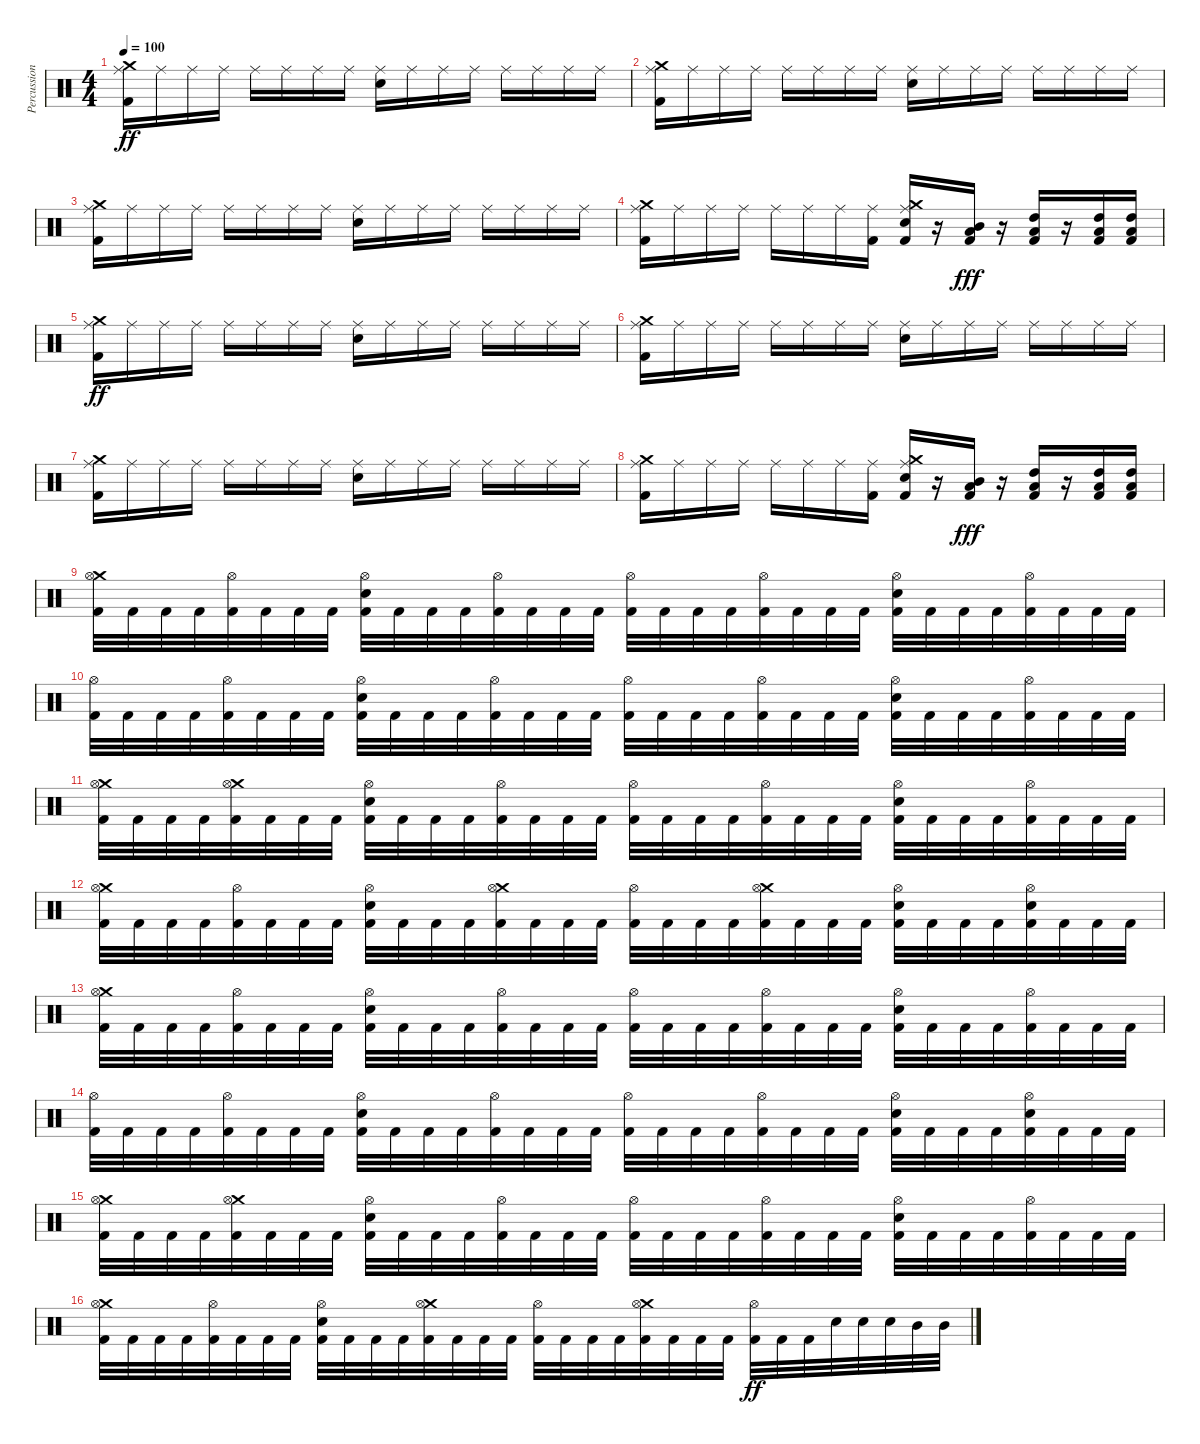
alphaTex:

\track ("Percussion" "Percussion") {instrument percussion}
\staff {score}
\articulation defaults
\ts (4 4)
\tempo 100
\clef neutral
\ks c
("Kick (hit) 2" "Crash medium (hit)" "Ride (middle)").16{dy ff} "Ride (middle)".16 "Ride (middle)".16 "Ride (middle)".16 "Ride (middle)".16 "Ride (middle)".16 "Ride (middle)".16 "Ride (middle)".16 ("Snare (hit) 2" "Ride (middle)").16 "Ride (middle)".16 "Ride (middle)".16 "Ride (middle)".16 "Ride (middle)".16 "Ride (middle)".16 "Ride (middle)".16 "Ride (middle)".16 |
("Kick (hit) 2" "Crash medium (hit)" "Ride (middle)").16 "Ride (middle)".16 "Ride (middle)".16 "Ride (middle)".16 "Ride (middle)".16 "Ride (middle)".16 "Ride (middle)".16 "Ride (middle)".16 ("Snare (hit) 2" "Ride (middle)").16 "Ride (middle)".16 "Ride (middle)".16 "Ride (middle)".16 "Ride (middle)".16 "Ride (middle)".16 "Ride (middle)".16 "Ride (middle)".16 |
("Kick (hit) 2" "Crash medium (hit)" "Ride (middle)").16 "Ride (middle)".16 "Ride (middle)".16 "Ride (middle)".16 "Ride (middle)".16 "Ride (middle)".16 "Ride (middle)".16 "Ride (middle)".16 ("Snare (hit) 2" "Ride (middle)").16 "Ride (middle)".16 "Ride (middle)".16 "Ride (middle)".16 "Ride (middle)".16 "Ride (middle)".16 "Ride (middle)".16 "Ride (middle)".16 |
("Kick (hit) 2" "Crash medium (hit)" "Ride (middle)").16 "Ride (middle)".16 "Ride (middle)".16 "Ride (middle)".16 "Ride (middle)".16 "Ride (middle)".16 "Ride (middle)".16 ("Kick (hit) 2" "Ride (middle)").16 ("Kick (hit) 2" "Crash medium (hit)" "Snare (hit) 2" "Ride (middle)").16 r.16 ("Kick (hit) 2" "Mid Tom (hit)" "Low Tom (hit)").16{dy fff} r.16 ("Kick (hit) 2" "High Tom (hit)" "Low Tom (hit)").16 r.16 ("Kick (hit) 2" "High Tom (hit)" "Low Tom (hit)").16 ("Kick (hit) 2" "High Tom (hit)" "Low Tom (hit)").16 |
("Kick (hit) 2" "Crash medium (hit)" "Ride (middle)").16{dy ff} "Ride (middle)".16 "Ride (middle)".16 "Ride (middle)".16 "Ride (middle)".16 "Ride (middle)".16 "Ride (middle)".16 "Ride (middle)".16 ("Snare (hit) 2" "Ride (middle)").16 "Ride (middle)".16 "Ride (middle)".16 "Ride (middle)".16 "Ride (middle)".16 "Ride (middle)".16 "Ride (middle)".16 "Ride (middle)".16 |
("Kick (hit) 2" "Crash medium (hit)" "Ride (middle)").16 "Ride (middle)".16 "Ride (middle)".16 "Ride (middle)".16 "Ride (middle)".16 "Ride (middle)".16 "Ride (middle)".16 "Ride (middle)".16 ("Snare (hit) 2" "Ride (middle)").16 "Ride (middle)".16 "Ride (middle)".16 "Ride (middle)".16 "Ride (middle)".16 "Ride (middle)".16 "Ride (middle)".16 "Ride (middle)".16 |
("Kick (hit) 2" "Crash medium (hit)" "Ride (middle)").16 "Ride (middle)".16 "Ride (middle)".16 "Ride (middle)".16 "Ride (middle)".16 "Ride (middle)".16 "Ride (middle)".16 "Ride (middle)".16 ("Snare (hit) 2" "Ride (middle)").16 "Ride (middle)".16 "Ride (middle)".16 "Ride (middle)".16 "Ride (middle)".16 "Ride (middle)".16 "Ride (middle)".16 "Ride (middle)".16 |
("Kick (hit) 2" "Crash medium (hit)" "Ride (middle)").16 "Ride (middle)".16 "Ride (middle)".16 "Ride (middle)".16 "Ride (middle)".16 "Ride (middle)".16 "Ride (middle)".16 ("Kick (hit) 2" "Ride (middle)").16 ("Kick (hit) 2" "Crash medium (hit)" "Snare (hit) 2" "Ride (middle)").16 r.16 ("Kick (hit) 2" "Mid Tom (hit)" "Low Tom (hit)").16{dy fff} r.16 ("Kick (hit) 2" "High Tom (hit)" "Low Tom (hit)").16 r.16 ("Kick (hit) 2" "High Tom (hit)" "Low Tom (hit)").16 ("Kick (hit) 2" "High Tom (hit)" "Low Tom (hit)").16 |
("Kick (hit) 2" "Crash medium (hit)" "Hi-Hat (open)").32 "Kick (hit) 2".32 "Kick (hit) 2".32 "Kick (hit) 2".32 ("Kick (hit) 2" "Hi-Hat (open)").32 "Kick (hit) 2".32 "Kick (hit) 2".32 "Kick (hit) 2".32 ("Kick (hit) 2" "Snare (hit) 2" "Hi-Hat (open)").32 "Kick (hit) 2".32 "Kick (hit) 2".32 "Kick (hit) 2".32 ("Kick (hit) 2" "Hi-Hat (open)").32 "Kick (hit) 2".32 "Kick (hit) 2".32 "Kick (hit) 2".32 ("Kick (hit) 2" "Hi-Hat (open)").32 "Kick (hit) 2".32 "Kick (hit) 2".32 "Kick (hit) 2".32 ("Kick (hit) 2" "Hi-Hat (open)").32 "Kick (hit) 2".32 "Kick (hit) 2".32 "Kick (hit) 2".32 ("Kick (hit) 2" "Snare (hit) 2" "Hi-Hat (open)").32 "Kick (hit) 2".32 "Kick (hit) 2".32 "Kick (hit) 2".32 ("Kick (hit) 2" "Hi-Hat (open)").32 "Kick (hit) 2".32 "Kick (hit) 2".32 "Kick (hit) 2".32 |
("Kick (hit) 2" "Hi-Hat (open)").32 "Kick (hit) 2".32 "Kick (hit) 2".32 "Kick (hit) 2".32 ("Kick (hit) 2" "Hi-Hat (open)").32 "Kick (hit) 2".32 "Kick (hit) 2".32 "Kick (hit) 2".32 ("Kick (hit) 2" "Snare (hit) 2" "Hi-Hat (open)").32 "Kick (hit) 2".32 "Kick (hit) 2".32 "Kick (hit) 2".32 ("Kick (hit) 2" "Hi-Hat (open)").32 "Kick (hit) 2".32 "Kick (hit) 2".32 "Kick (hit) 2".32 ("Kick (hit) 2" "Hi-Hat (open)").32 "Kick (hit) 2".32 "Kick (hit) 2".32 "Kick (hit) 2".32 ("Kick (hit) 2" "Hi-Hat (open)").32 "Kick (hit) 2".32 "Kick (hit) 2".32 "Kick (hit) 2".32 ("Kick (hit) 2" "Snare (hit) 2" "Hi-Hat (open)").32 "Kick (hit) 2".32 "Kick (hit) 2".32 "Kick (hit) 2".32 ("Kick (hit) 2" "Hi-Hat (open)").32 "Kick (hit) 2".32 "Kick (hit) 2".32 "Kick (hit) 2".32 |
("Kick (hit) 2" "Crash medium (hit)" "Hi-Hat (open)").32 "Kick (hit) 2".32 "Kick (hit) 2".32 "Kick (hit) 2".32 ("Kick (hit) 2" "Crash medium (hit)" "Hi-Hat (open)").32 "Kick (hit) 2".32 "Kick (hit) 2".32 "Kick (hit) 2".32 ("Kick (hit) 2" "Snare (hit) 2" "Hi-Hat (open)").32 "Kick (hit) 2".32 "Kick (hit) 2".32 "Kick (hit) 2".32 ("Kick (hit) 2" "Hi-Hat (open)").32 "Kick (hit) 2".32 "Kick (hit) 2".32 "Kick (hit) 2".32 ("Kick (hit) 2" "Hi-Hat (open)").32 "Kick (hit) 2".32 "Kick (hit) 2".32 "Kick (hit) 2".32 ("Kick (hit) 2" "Hi-Hat (open)").32 "Kick (hit) 2".32 "Kick (hit) 2".32 "Kick (hit) 2".32 ("Kick (hit) 2" "Snare (hit) 2" "Hi-Hat (open)").32 "Kick (hit) 2".32 "Kick (hit) 2".32 "Kick (hit) 2".32 ("Kick (hit) 2" "Hi-Hat (open)").32 "Kick (hit) 2".32 "Kick (hit) 2".32 "Kick (hit) 2".32 |
("Kick (hit) 2" "Crash medium (hit)" "Hi-Hat (open)").32 "Kick (hit) 2".32 "Kick (hit) 2".32 "Kick (hit) 2".32 ("Kick (hit) 2" "Hi-Hat (open)").32 "Kick (hit) 2".32 "Kick (hit) 2".32 "Kick (hit) 2".32 ("Kick (hit) 2" "Snare (hit) 2" "Hi-Hat (open)").32 "Kick (hit) 2".32 "Kick (hit) 2".32 "Kick (hit) 2".32 ("Kick (hit) 2" "Crash medium (hit)" "Hi-Hat (open)").32 "Kick (hit) 2".32 "Kick (hit) 2".32 "Kick (hit) 2".32 ("Kick (hit) 2" "Hi-Hat (open)").32 "Kick (hit) 2".32 "Kick (hit) 2".32 "Kick (hit) 2".32 ("Kick (hit) 2" "Crash medium (hit)" "Hi-Hat (open)").32 "Kick (hit) 2".32 "Kick (hit) 2".32 "Kick (hit) 2".32 ("Kick (hit) 2" "Snare (hit) 2" "Hi-Hat (open)").32 "Kick (hit) 2".32 "Kick (hit) 2".32 "Kick (hit) 2".32 ("Kick (hit) 2" "Snare (hit) 2" "Hi-Hat (open)").32 "Kick (hit) 2".32 "Kick (hit) 2".32 "Kick (hit) 2".32 |
("Kick (hit) 2" "Crash medium (hit)" "Hi-Hat (open)").32 "Kick (hit) 2".32 "Kick (hit) 2".32 "Kick (hit) 2".32 ("Kick (hit) 2" "Hi-Hat (open)").32 "Kick (hit) 2".32 "Kick (hit) 2".32 "Kick (hit) 2".32 ("Kick (hit) 2" "Snare (hit) 2" "Hi-Hat (open)").32 "Kick (hit) 2".32 "Kick (hit) 2".32 "Kick (hit) 2".32 ("Kick (hit) 2" "Hi-Hat (open)").32 "Kick (hit) 2".32 "Kick (hit) 2".32 "Kick (hit) 2".32 ("Kick (hit) 2" "Hi-Hat (open)").32 "Kick (hit) 2".32 "Kick (hit) 2".32 "Kick (hit) 2".32 ("Kick (hit) 2" "Hi-Hat (open)").32 "Kick (hit) 2".32 "Kick (hit) 2".32 "Kick (hit) 2".32 ("Kick (hit) 2" "Snare (hit) 2" "Hi-Hat (open)").32 "Kick (hit) 2".32 "Kick (hit) 2".32 "Kick (hit) 2".32 ("Kick (hit) 2" "Hi-Hat (open)").32 "Kick (hit) 2".32 "Kick (hit) 2".32 "Kick (hit) 2".32 |
("Kick (hit) 2" "Hi-Hat (open)").32 "Kick (hit) 2".32 "Kick (hit) 2".32 "Kick (hit) 2".32 ("Kick (hit) 2" "Hi-Hat (open)").32 "Kick (hit) 2".32 "Kick (hit) 2".32 "Kick (hit) 2".32 ("Kick (hit) 2" "Snare (hit) 2" "Hi-Hat (open)").32 "Kick (hit) 2".32 "Kick (hit) 2".32 "Kick (hit) 2".32 ("Kick (hit) 2" "Hi-Hat (open)").32 "Kick (hit) 2".32 "Kick (hit) 2".32 "Kick (hit) 2".32 ("Kick (hit) 2" "Hi-Hat (open)").32 "Kick (hit) 2".32 "Kick (hit) 2".32 "Kick (hit) 2".32 ("Kick (hit) 2" "Hi-Hat (open)").32 "Kick (hit) 2".32 "Kick (hit) 2".32 "Kick (hit) 2".32 ("Kick (hit) 2" "Snare (hit) 2" "Hi-Hat (open)").32 "Kick (hit) 2".32 "Kick (hit) 2".32 "Kick (hit) 2".32 ("Kick (hit) 2" "Snare (hit) 2" "Hi-Hat (open)").32 "Kick (hit) 2".32 "Kick (hit) 2".32 "Kick (hit) 2".32 |
("Kick (hit) 2" "Crash medium (hit)" "Hi-Hat (open)").32 "Kick (hit) 2".32 "Kick (hit) 2".32 "Kick (hit) 2".32 ("Kick (hit) 2" "Crash medium (hit)" "Hi-Hat (open)").32 "Kick (hit) 2".32 "Kick (hit) 2".32 "Kick (hit) 2".32 ("Kick (hit) 2" "Snare (hit) 2" "Hi-Hat (open)").32 "Kick (hit) 2".32 "Kick (hit) 2".32 "Kick (hit) 2".32 ("Kick (hit) 2" "Hi-Hat (open)").32 "Kick (hit) 2".32 "Kick (hit) 2".32 "Kick (hit) 2".32 ("Kick (hit) 2" "Hi-Hat (open)").32 "Kick (hit) 2".32 "Kick (hit) 2".32 "Kick (hit) 2".32 ("Kick (hit) 2" "Hi-Hat (open)").32 "Kick (hit) 2".32 "Kick (hit) 2".32 "Kick (hit) 2".32 ("Kick (hit) 2" "Snare (hit) 2" "Hi-Hat (open)").32 "Kick (hit) 2".32 "Kick (hit) 2".32 "Kick (hit) 2".32 ("Kick (hit) 2" "Hi-Hat (open)").32 "Kick (hit) 2".32 "Kick (hit) 2".32 "Kick (hit) 2".32 |
("Kick (hit) 2" "Crash medium (hit)" "Hi-Hat (open)").32 "Kick (hit) 2".32 "Kick (hit) 2".32 "Kick (hit) 2".32 ("Kick (hit) 2" "Hi-Hat (open)").32 "Kick (hit) 2".32 "Kick (hit) 2".32 "Kick (hit) 2".32 ("Kick (hit) 2" "Snare (hit) 2" "Hi-Hat (open)").32 "Kick (hit) 2".32 "Kick (hit) 2".32 "Kick (hit) 2".32 ("Kick (hit) 2" "Crash medium (hit)" "Hi-Hat (open)").32 "Kick (hit) 2".32 "Kick (hit) 2".32 "Kick (hit) 2".32 ("Kick (hit) 2" "Hi-Hat (open)").32 "Kick (hit) 2".32 "Kick (hit) 2".32 "Kick (hit) 2".32 ("Kick (hit) 2" "Crash medium (hit)" "Hi-Hat (open)").32 "Kick (hit) 2".32 "Kick (hit) 2".32 "Kick (hit) 2".32 ("Kick (hit) 2" "Hi-Hat (open)").32{dy ff} "Kick (hit) 2".32 "Kick (hit) 2".32 "Snare (hit) 2".32 "Snare (hit) 2".32 "Snare (hit) 2".32 "Mid Tom (hit)".32 "Mid Tom (hit)".32
